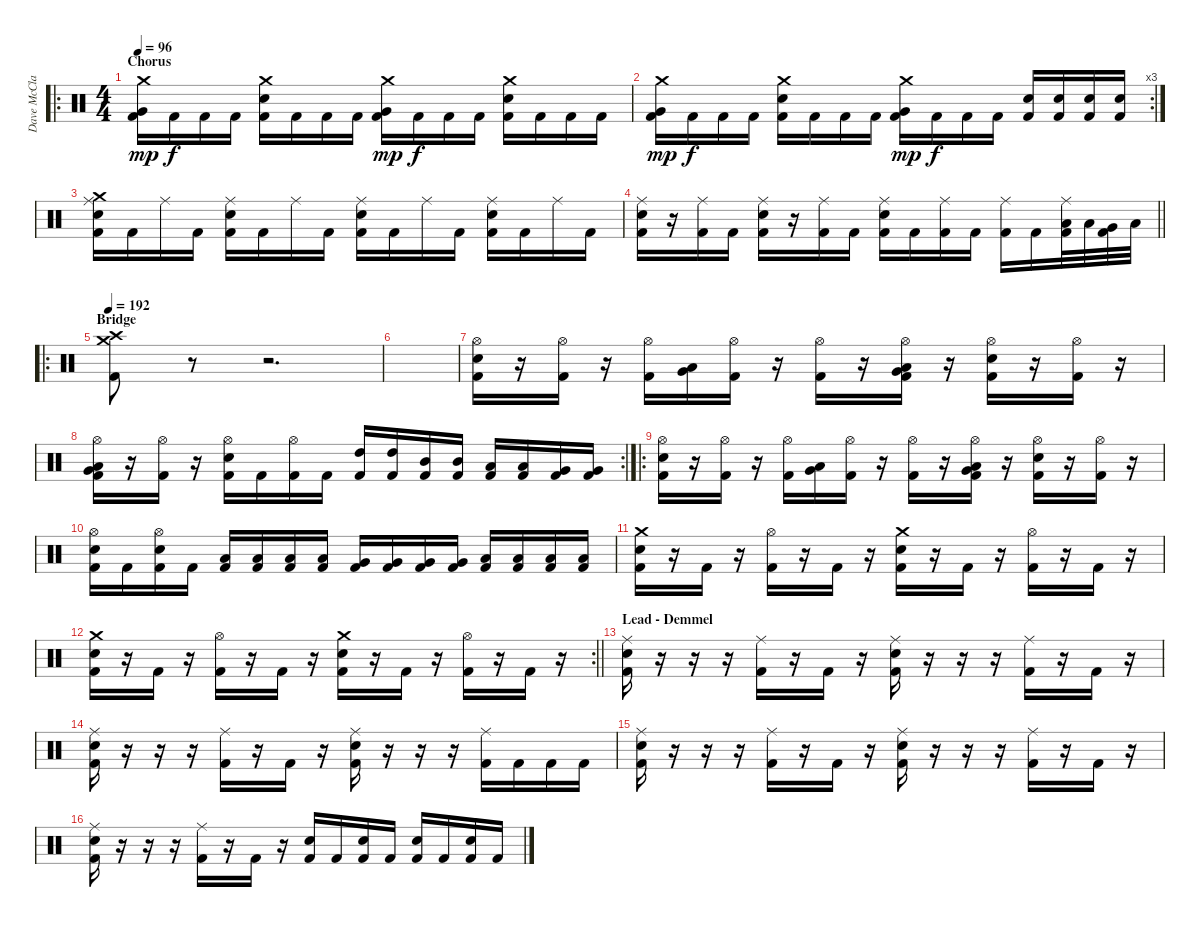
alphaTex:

\track ("Dave McClain" "Dave McCla") {instrument percussion}
\staff {score}
\articulation defaults
\ro
\ts (4 4)
\section ("" "Chorus")
\tempo 96
\clef neutral
\ks c
("Crash medium (hit)" "Very Low Tom (hit)" "Kick (hit) 2").16{dy mp} "Kick (hit) 2".16{dy f} "Kick (hit) 2".16 "Kick (hit) 2".16 ("Crash medium (hit)" "Snare (hit) 2" "Kick (hit) 2").16 "Kick (hit) 2".16 "Kick (hit) 2".16 "Kick (hit) 2".16 ("Crash medium (hit)" "Very Low Tom (hit)" "Kick (hit) 2").16{dy mp} "Kick (hit) 2".16{dy f} "Kick (hit) 2".16 "Kick (hit) 2".16 ("Crash medium (hit)" "Snare (hit) 2" "Kick (hit) 2").16 "Kick (hit) 2".16 "Kick (hit) 2".16 "Kick (hit) 2".16 |
\rc 3
("Crash medium (hit)" "Very Low Tom (hit)" "Kick (hit) 2").16{dy mp} "Kick (hit) 2".16{dy f} "Kick (hit) 2".16 "Kick (hit) 2".16 ("Crash medium (hit)" "Snare (hit) 2" "Kick (hit) 2").16 "Kick (hit) 2".16 "Kick (hit) 2".16 "Kick (hit) 2".16 ("Crash medium (hit)" "Very Low Tom (hit)" "Kick (hit) 2").16{dy mp} "Kick (hit) 2".16{dy f} "Kick (hit) 2".16 "Kick (hit) 2".16 ("Snare (hit) 2" "Kick (hit) 2").16 ("Snare (hit) 2" "Kick (hit) 2").16 ("Snare (hit) 2" "Kick (hit) 2").16 ("Snare (hit) 2" "Kick (hit) 2").16 |
("Crash medium (hit)" "Ride (middle)" "Snare (hit) 2" "Kick (hit) 2").16 "Kick (hit) 2".16 "Ride (middle)".16 "Kick (hit) 2".16 ("Ride (middle)" "Snare (hit) 2" "Kick (hit) 2").16 "Kick (hit) 2".16 "Ride (middle)".16 "Kick (hit) 2".16 ("Ride (middle)" "Snare (hit) 2" "Kick (hit) 2").16 "Kick (hit) 2".16 "Ride (middle)".16 "Kick (hit) 2".16 ("Ride (middle)" "Snare (hit) 2" "Kick (hit) 2").16 "Kick (hit) 2".16 "Ride (middle)".16 "Kick (hit) 2".16 |
\barLineRight lightlight
("Ride (middle)" "Snare (hit) 2" "Kick (hit) 2").16 r.16 ("Ride (middle)" "Kick (hit) 2").16 "Kick (hit) 2".16 ("Ride (middle)" "Snare (hit) 2" "Kick (hit) 2").16 r.16 ("Ride (middle)" "Kick (hit) 2").16 "Kick (hit) 2".16 ("Ride (middle)" "Snare (hit) 2" "Kick (hit) 2").16 "Kick (hit) 2".16 ("Ride (middle)" "Kick (hit) 2").16 "Kick (hit) 2".16 ("Ride (middle)" "Kick (hit) 2").16 "Kick (hit) 2".16 ("Ride (middle)" "Low Tom (hit)" "Kick (hit) 2").32 "Low Tom (hit)".32 ("Very Low Tom (hit)" "Kick (hit) 2").32 "Low Floor Tom (hit)".32 |
\ro
\section ("" "Bridge")
\tempo 186
\tempo 192
("Crash high (hit)" "Crash medium (hit)" "Kick (hit) 2").8 r.8 r.2{d} |
|
("Hi-Hat (open)" "Snare (hit) 2" "Kick (hit) 2").16 r.16 ("Hi-Hat (open)" "Kick (hit) 2").16 r.16 ("Hi-Hat (open)" "Kick (hit) 2").16 ("Low Floor Tom (hit)" "Very Low Tom (hit)").16 ("Hi-Hat (open)" "Kick (hit) 2").16 r.16 ("Hi-Hat (open)" "Kick (hit) 2").16 r.16 ("Hi-Hat (open)" "Low Floor Tom (hit)" "Very Low Tom (hit)" "Kick (hit) 2").16 r.16 ("Hi-Hat (open)" "Snare (hit) 2" "Kick (hit) 2").16 r.16 ("Hi-Hat (open)" "Kick (hit) 2").16 r.16 |
\rc 2
("Hi-Hat (open)" "Low Floor Tom (hit)" "Very Low Tom (hit)" "Kick (hit) 2").16 r.16 ("Hi-Hat (open)" "Kick (hit) 2").16 r.16 ("Hi-Hat (open)" "Snare (hit) 2" "Kick (hit) 2").16 "Kick (hit) 2".16 ("Hi-Hat (open)" "Kick (hit) 2").16 "Kick (hit) 2".16 ("High Tom (hit)" "Kick (hit) 2").16 ("High Tom (hit)" "Kick (hit) 2").16 ("Mid Tom (hit)" "Kick (hit) 2").16 ("Mid Tom (hit)" "Kick (hit) 2").16 ("Low Tom (hit)" "Kick (hit) 2").16 ("Low Tom (hit)" "Kick (hit) 2").16 ("Very Low Tom (hit)" "Kick (hit) 2").16 ("Very Low Tom (hit)" "Kick (hit) 2").16 |
\ro
("Hi-Hat (open)" "Snare (hit) 2" "Kick (hit) 2").16 r.16 ("Hi-Hat (open)" "Kick (hit) 2").16 r.16 ("Hi-Hat (open)" "Kick (hit) 2").16 ("Low Floor Tom (hit)" "Very Low Tom (hit)").16 ("Hi-Hat (open)" "Kick (hit) 2").16 r.16 ("Hi-Hat (open)" "Kick (hit) 2").16 r.16 ("Hi-Hat (open)" "Low Floor Tom (hit)" "Very Low Tom (hit)" "Kick (hit) 2").16 r.16 ("Hi-Hat (open)" "Snare (hit) 2" "Kick (hit) 2").16 r.16 ("Hi-Hat (open)" "Kick (hit) 2").16 r.16 |
("Hi-Hat (open)" "Snare (hit) 2" "Kick (hit) 2").16 "Kick (hit) 2".16 ("Hi-Hat (open)" "Snare (hit) 2" "Kick (hit) 2").16 "Kick (hit) 2".16 ("Low Tom (hit)" "Kick (hit) 2").16 ("Low Tom (hit)" "Kick (hit) 2").16 ("Low Tom (hit)" "Kick (hit) 2").16 ("Low Tom (hit)" "Kick (hit) 2").16 ("Very Low Tom (hit)" "Kick (hit) 2").16 ("Very Low Tom (hit)" "Kick (hit) 2").16 ("Very Low Tom (hit)" "Kick (hit) 2").16 ("Very Low Tom (hit)" "Kick (hit) 2").16 ("Low Floor Tom (hit)" "Kick (hit) 2").16 ("Low Floor Tom (hit)" "Kick (hit) 2").16 ("Low Floor Tom (hit)" "Kick (hit) 2").16 ("Low Floor Tom (hit)" "Kick (hit) 2").16 |
("Crash medium (hit)" "Snare (hit) 2" "Kick (hit) 2").16 r.16 "Kick (hit) 2".16 r.16 ("Hi-Hat (open)" "Kick (hit) 2").16 r.16 "Kick (hit) 2".16 r.16 ("Crash medium (hit)" "Snare (hit) 2" "Kick (hit) 2").16 r.16 "Kick (hit) 2".16 r.16 ("Hi-Hat (open)" "Kick (hit) 2").16 r.16 "Kick (hit) 2".16 r.16 |
\rc 2
\barLineRight lightlight
("Crash medium (hit)" "Snare (hit) 2" "Kick (hit) 2").16 r.16 "Kick (hit) 2".16 r.16 ("Hi-Hat (open)" "Kick (hit) 2").16 r.16 "Kick (hit) 2".16 r.16 ("Crash medium (hit)" "Snare (hit) 2" "Kick (hit) 2").16 r.16 "Kick (hit) 2".16 r.16 ("Hi-Hat (open)" "Kick (hit) 2").16 r.16 "Kick (hit) 2".16 r.16 |
\section ("" "Lead - Demmel")
("Ride (middle)" "Snare (hit) 2" "Kick (hit) 2").16 r.16 r.16 r.16 ("Ride (middle)" "Kick (hit) 2").16 r.16 "Kick (hit) 2".16 r.16 ("Ride (middle)" "Snare (hit) 2" "Kick (hit) 2").16 r.16 r.16 r.16 ("Ride (middle)" "Kick (hit) 2").16 r.16 "Kick (hit) 2".16 r.16 |
("Ride (middle)" "Snare (hit) 2" "Kick (hit) 2").16 r.16 r.16 r.16 ("Ride (middle)" "Kick (hit) 2").16 r.16 "Kick (hit) 2".16 r.16 ("Ride (middle)" "Snare (hit) 2" "Kick (hit) 2").16 r.16 r.16 r.16 ("Ride (middle)" "Kick (hit) 2").16 "Kick (hit) 2".16 "Kick (hit) 2".16 "Kick (hit) 2".16 |
("Ride (middle)" "Snare (hit) 2" "Kick (hit) 2").16 r.16 r.16 r.16 ("Ride (middle)" "Kick (hit) 2").16 r.16 "Kick (hit) 2".16 r.16 ("Ride (middle)" "Snare (hit) 2" "Kick (hit) 2").16 r.16 r.16 r.16 ("Ride (middle)" "Kick (hit) 2").16 r.16 "Kick (hit) 2".16 r.16 |
("Ride (middle)" "Snare (hit) 2" "Kick (hit) 2").16 r.16 r.16 r.16 ("Ride (middle)" "Kick (hit) 2").16 r.16 "Kick (hit) 2".16 r.16 ("Snare (hit) 2" "Kick (hit) 2").16 "Kick (hit) 2".16 ("Snare (hit) 2" "Kick (hit) 2").16 "Kick (hit) 2".16 ("Snare (hit) 2" "Kick (hit) 2").16 "Kick (hit) 2".16 ("Snare (hit) 2" "Kick (hit) 2").16 "Kick (hit) 2".16
